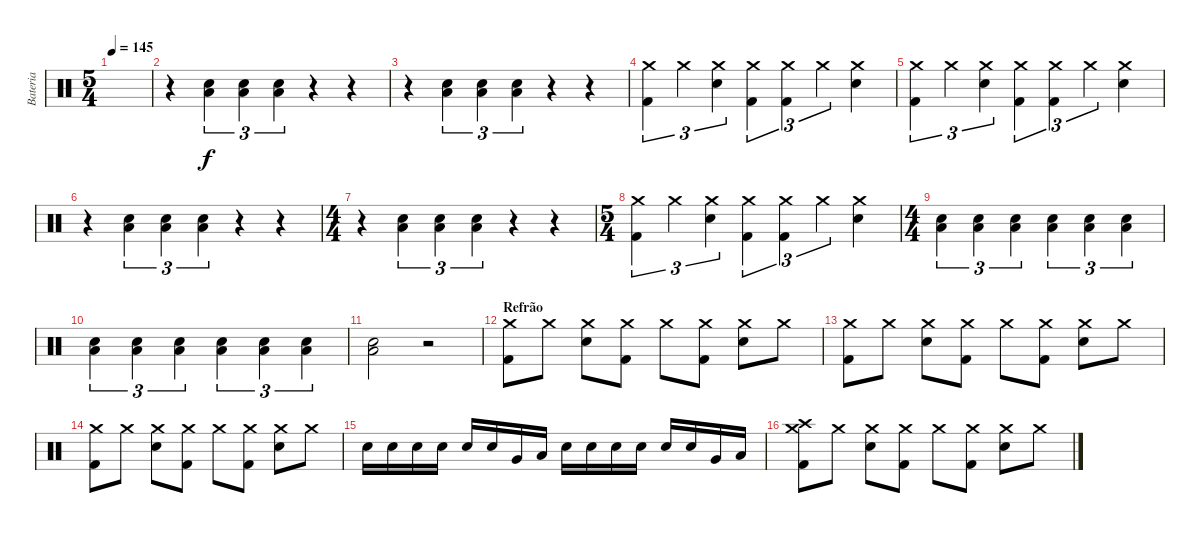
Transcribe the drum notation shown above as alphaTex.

\track ("Bateria" "Bateria") {instrument percussion}
\staff {score}
\articulation defaults
\ts (5 4)
\tempo 145
\clef neutral
\ks c
|
r.4 ("Snare (hit) 2" "Low Floor Tom (hit)").4{tu (3 2)} ("Snare (hit) 2" "Low Floor Tom (hit)").4{tu (3 2)} ("Snare (hit) 2" "Low Floor Tom (hit)").4{tu (3 2)} r.4 r.4 |
r.4 ("Snare (hit) 2" "Low Floor Tom (hit)").4{tu (3 2)} ("Snare (hit) 2" "Low Floor Tom (hit)").4{tu (3 2)} ("Snare (hit) 2" "Low Floor Tom (hit)").4{tu (3 2)} r.4 r.4 |
("Kick (hit) 2" "Crash medium (hit)").4{tu (3 2)} "Crash medium (hit)".4{tu (3 2)} ("Snare (hit) 2" "Crash medium (hit)").4{tu (3 2)} ("Kick (hit) 2" "Crash medium (hit)").4{tu (3 2)} ("Kick (hit) 2" "Crash medium (hit)").4{tu (3 2)} "Crash medium (hit)".4{tu (3 2)} ("Snare (hit) 2" "Crash medium (hit)").4 |
("Kick (hit) 2" "Crash medium (hit)").4{tu (3 2)} "Crash medium (hit)".4{tu (3 2)} ("Snare (hit) 2" "Crash medium (hit)").4{tu (3 2)} ("Kick (hit) 2" "Crash medium (hit)").4{tu (3 2)} ("Kick (hit) 2" "Crash medium (hit)").4{tu (3 2)} "Crash medium (hit)".4{tu (3 2)} ("Snare (hit) 2" "Crash medium (hit)").4 |
r.4 ("Snare (hit) 2" "Low Floor Tom (hit)").4{tu (3 2)} ("Snare (hit) 2" "Low Floor Tom (hit)").4{tu (3 2)} ("Snare (hit) 2" "Low Floor Tom (hit)").4{tu (3 2)} r.4 r.4 |
\ts (4 4)
r.4 ("Snare (hit) 2" "Low Floor Tom (hit)").4{tu (3 2)} ("Snare (hit) 2" "Low Floor Tom (hit)").4{tu (3 2)} ("Snare (hit) 2" "Low Floor Tom (hit)").4{tu (3 2)} r.4 r.4 |
\ts (5 4)
("Kick (hit) 2" "Crash medium (hit)").4{tu (3 2)} "Crash medium (hit)".4{tu (3 2)} ("Snare (hit) 2" "Crash medium (hit)").4{tu (3 2)} ("Kick (hit) 2" "Crash medium (hit)").4{tu (3 2)} ("Kick (hit) 2" "Crash medium (hit)").4{tu (3 2)} "Crash medium (hit)".4{tu (3 2)} ("Snare (hit) 2" "Crash medium (hit)").4 |
\ts (4 4)
("Snare (hit) 2" "Low Floor Tom (hit)").4{tu (3 2)} ("Snare (hit) 2" "Low Floor Tom (hit)").4{tu (3 2)} ("Snare (hit) 2" "Low Floor Tom (hit)").4{tu (3 2)} ("Snare (hit) 2" "Low Floor Tom (hit)").4{tu (3 2)} ("Snare (hit) 2" "Low Floor Tom (hit)").4{tu (3 2)} ("Snare (hit) 2" "Low Floor Tom (hit)").4{tu (3 2)} |
("Snare (hit) 2" "Low Floor Tom (hit)").4{tu (3 2)} ("Snare (hit) 2" "Low Floor Tom (hit)").4{tu (3 2)} ("Snare (hit) 2" "Low Floor Tom (hit)").4{tu (3 2)} ("Snare (hit) 2" "Low Floor Tom (hit)").4{tu (3 2)} ("Snare (hit) 2" "Low Floor Tom (hit)").4{tu (3 2)} ("Snare (hit) 2" "Low Floor Tom (hit)").4{tu (3 2)} |
("Snare (hit) 2" "Low Floor Tom (hit)").2 r.2 |
\section ("" "Refrão")
("Kick (hit) 2" "Crash medium (hit)").8 "Crash medium (hit)".8 ("Snare (hit) 2" "Crash medium (hit)").8 ("Kick (hit) 2" "Crash medium (hit)").8 "Crash medium (hit)".8 ("Kick (hit) 2" "Crash medium (hit)").8 ("Snare (hit) 2" "Crash medium (hit)").8 "Crash medium (hit)".8 |
("Kick (hit) 2" "Crash medium (hit)").8 "Crash medium (hit)".8 ("Snare (hit) 2" "Crash medium (hit)").8 ("Kick (hit) 2" "Crash medium (hit)").8 "Crash medium (hit)".8 ("Kick (hit) 2" "Crash medium (hit)").8 ("Snare (hit) 2" "Crash medium (hit)").8 "Crash medium (hit)".8 |
("Kick (hit) 2" "Crash medium (hit)").8 "Crash medium (hit)".8 ("Snare (hit) 2" "Crash medium (hit)").8 ("Kick (hit) 2" "Crash medium (hit)").8 "Crash medium (hit)".8 ("Kick (hit) 2" "Crash medium (hit)").8 ("Snare (hit) 2" "Crash medium (hit)").8 "Crash medium (hit)".8 |
"Snare (hit) 2".16 "Snare (hit) 2".16 "Snare (hit) 2".16 "Snare (hit) 2".16 "Snare (hit) 2".16 "Electric Snare (hit)".16 "Very Low Tom (hit)".16 "Low Floor Tom (hit)".16 "Snare (hit) 2".16 "Snare (hit) 2".16 "Snare (hit) 2".16 "Snare (hit) 2".16 "Snare (hit) 2".16 "Electric Snare (hit)".16 "Very Low Tom (hit)".16 "Low Floor Tom (hit)".16 |
("Kick (hit) 2" "Crash medium (hit)" "Crash high (hit)").8 "Crash medium (hit)".8 ("Snare (hit) 2" "Crash medium (hit)").8 ("Kick (hit) 2" "Crash medium (hit)").8 "Crash medium (hit)".8 ("Kick (hit) 2" "Crash medium (hit)").8 ("Snare (hit) 2" "Crash medium (hit)").8 "Crash medium (hit)".8
